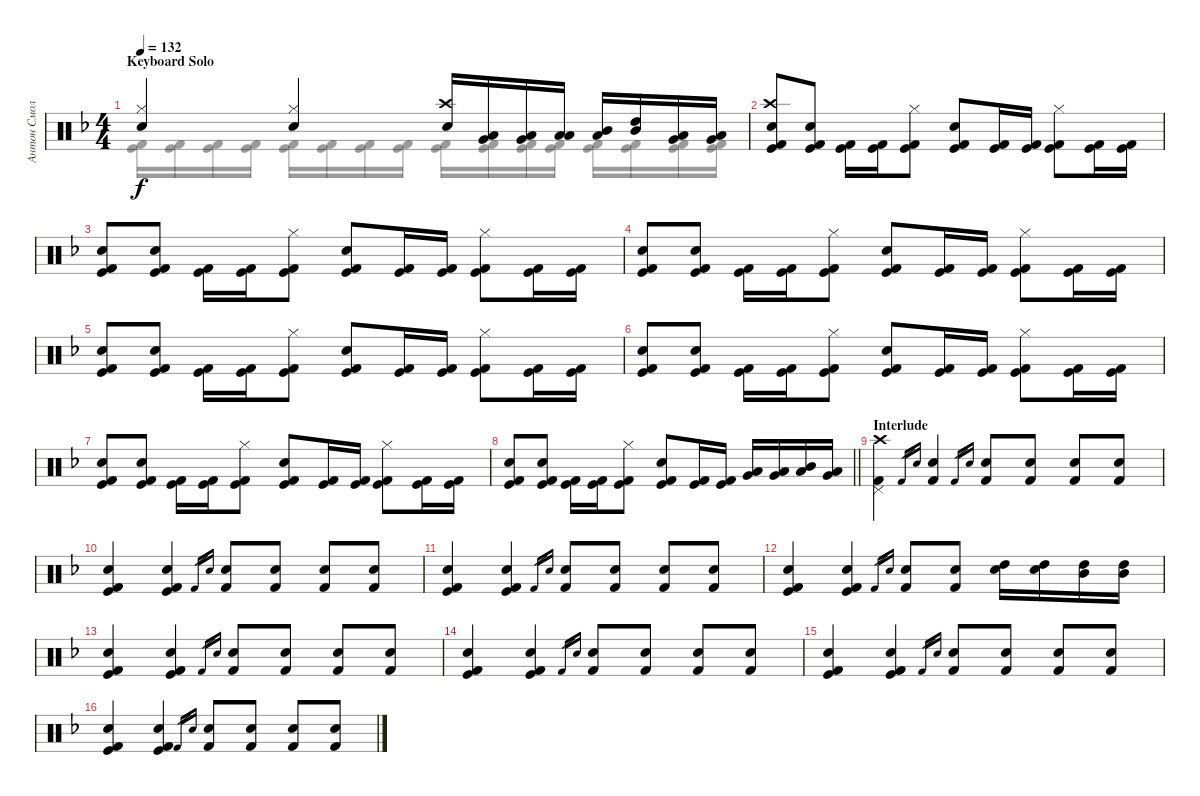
\track ("Антон Смольянин" "Антон Смол") {instrument percussion}
\staff {score}
\articulation defaults
\voice
\ts (4 4)
\section ("" "Keyboard Solo")
\tempo 132
\clef neutral
\ks f
("Hi-Hat (closed)" "Snare (hit) 2").4{dy f} ("Hi-Hat (closed)" "Snare (hit) 2").4 ("Snare (hit) 2" "Crash high (hit)").16 ("Low Tom (hit)" "Very Low Tom (hit)").16 ("Very Low Tom (hit)" "Low Tom (hit)").16 ("Low Floor Tom (hit)" "Low Tom (hit)").16 ("Low Tom (hit)" "Mid Tom (hit)").16 ("Mid Tom (hit)" "High Tom (hit)").16 ("Very Low Tom (hit)" "Low Floor Tom (hit)").16 ("Very Low Tom (hit)" "Low Tom (hit)").16 |
("Kick (hit) 2" "Kick (hit)" "Snare (hit) 2" "Crash high (hit)").8 ("Kick (hit) 2" "Kick (hit)" "Snare (hit) 2").8 ("Kick (hit) 2" "Kick (hit)").16 ("Kick (hit) 2" "Kick (hit)").16 ("Kick (hit) 2" "Kick (hit)" "Hi-Hat (closed)").8 ("Kick (hit) 2" "Kick (hit)" "Snare (hit) 2").8 ("Kick (hit) 2" "Kick (hit)").16 ("Kick (hit) 2" "Kick (hit)").16 ("Kick (hit) 2" "Kick (hit)" "Hi-Hat (closed)").8 ("Kick (hit) 2" "Kick (hit)").16 ("Kick (hit) 2" "Kick (hit)").16 |
("Kick (hit) 2" "Kick (hit)" "Snare (hit) 2").8 ("Kick (hit) 2" "Kick (hit)" "Snare (hit) 2").8 ("Kick (hit) 2" "Kick (hit)").16 ("Kick (hit) 2" "Kick (hit)").16 ("Kick (hit) 2" "Kick (hit)" "Hi-Hat (closed)").8 ("Kick (hit) 2" "Kick (hit)" "Snare (hit) 2").8 ("Kick (hit) 2" "Kick (hit)").16 ("Kick (hit) 2" "Kick (hit)").16 ("Kick (hit) 2" "Kick (hit)" "Hi-Hat (closed)").8 ("Kick (hit) 2" "Kick (hit)").16 ("Kick (hit) 2" "Kick (hit)").16 |
("Kick (hit) 2" "Kick (hit)" "Snare (hit) 2").8 ("Kick (hit) 2" "Kick (hit)" "Snare (hit) 2").8 ("Kick (hit) 2" "Kick (hit)").16 ("Kick (hit) 2" "Kick (hit)").16 ("Kick (hit) 2" "Kick (hit)" "Hi-Hat (closed)").8 ("Kick (hit) 2" "Kick (hit)" "Snare (hit) 2").8 ("Kick (hit) 2" "Kick (hit)").16 ("Kick (hit) 2" "Kick (hit)").16 ("Kick (hit) 2" "Kick (hit)" "Hi-Hat (closed)").8 ("Kick (hit) 2" "Kick (hit)").16 ("Kick (hit) 2" "Kick (hit)").16 |
("Kick (hit) 2" "Kick (hit)" "Snare (hit) 2").8 ("Kick (hit) 2" "Kick (hit)" "Snare (hit) 2").8 ("Kick (hit) 2" "Kick (hit)").16 ("Kick (hit) 2" "Kick (hit)").16 ("Kick (hit) 2" "Kick (hit)" "Hi-Hat (closed)").8 ("Kick (hit) 2" "Kick (hit)" "Snare (hit) 2").8 ("Kick (hit) 2" "Kick (hit)").16 ("Kick (hit) 2" "Kick (hit)").16 ("Kick (hit) 2" "Kick (hit)" "Hi-Hat (closed)").8 ("Kick (hit) 2" "Kick (hit)").16 ("Kick (hit) 2" "Kick (hit)").16 |
("Kick (hit) 2" "Kick (hit)" "Snare (hit) 2").8 ("Kick (hit) 2" "Kick (hit)" "Snare (hit) 2").8 ("Kick (hit) 2" "Kick (hit)").16 ("Kick (hit) 2" "Kick (hit)").16 ("Kick (hit) 2" "Kick (hit)" "Hi-Hat (closed)").8 ("Kick (hit) 2" "Kick (hit)" "Snare (hit) 2").8 ("Kick (hit) 2" "Kick (hit)").16 ("Kick (hit) 2" "Kick (hit)").16 ("Kick (hit) 2" "Kick (hit)" "Hi-Hat (closed)").8 ("Kick (hit) 2" "Kick (hit)").16 ("Kick (hit) 2" "Kick (hit)").16 |
("Kick (hit) 2" "Kick (hit)" "Snare (hit) 2").8 ("Kick (hit) 2" "Kick (hit)" "Snare (hit) 2").8 ("Kick (hit) 2" "Kick (hit)").16 ("Kick (hit) 2" "Kick (hit)").16 ("Kick (hit) 2" "Kick (hit)" "Hi-Hat (closed)").8 ("Kick (hit) 2" "Kick (hit)" "Snare (hit) 2").8 ("Kick (hit) 2" "Kick (hit)").16 ("Kick (hit) 2" "Kick (hit)").16 ("Kick (hit) 2" "Kick (hit)" "Hi-Hat (closed)").8 ("Kick (hit) 2" "Kick (hit)").16 ("Kick (hit) 2" "Kick (hit)").16 |
\barLineRight lightlight
("Kick (hit) 2" "Kick (hit)" "Snare (hit) 2").8 ("Kick (hit) 2" "Kick (hit)" "Snare (hit) 2").8 ("Kick (hit) 2" "Kick (hit)").16 ("Kick (hit) 2" "Kick (hit)").16 ("Kick (hit) 2" "Kick (hit)" "Hi-Hat (closed)").8 ("Kick (hit) 2" "Kick (hit)" "Snare (hit) 2").8 ("Kick (hit) 2" "Kick (hit)").16 ("Kick (hit) 2" "Kick (hit)").16 ("Low Tom (hit)" "Very Low Tom (hit)").16 ("Very Low Tom (hit)" "Low Tom (hit)").16 ("Mid Tom (hit)" "Low Tom (hit)").16 ("Low Tom (hit)" "Very Low Tom (hit)").16 |
\section ("" "Interlude")
("Kick (hit) 2" "Pedal Hi-Hat (hit)" "Crash high (hit)").4 "Kick (hit) 2".16{gr} "Snare (hit) 2".16{gr} ("Kick (hit) 2" "Snare (hit) 2").4 "Kick (hit) 2".16{gr} "Snare (hit) 2".16{gr} ("Kick (hit) 2" "Snare (hit) 2").8 ("Kick (hit) 2" "Snare (hit) 2").8 ("Kick (hit) 2" "Snare (hit) 2").8 ("Kick (hit) 2" "Snare (hit) 2").8 |
("Kick (hit) 2" "Kick (hit)" "Snare (hit) 2").4 ("Kick (hit) 2" "Kick (hit)" "Snare (hit) 2").4 "Kick (hit) 2".16{gr} "Snare (hit) 2".16{gr} ("Kick (hit) 2" "Snare (hit) 2").8 ("Kick (hit) 2" "Snare (hit) 2").8 ("Kick (hit) 2" "Snare (hit) 2").8 ("Kick (hit) 2" "Snare (hit) 2").8 |
("Kick (hit) 2" "Kick (hit)" "Snare (hit) 2").4 ("Kick (hit) 2" "Kick (hit)" "Snare (hit) 2").4 "Kick (hit) 2".16{gr} "Snare (hit) 2".16{gr} ("Kick (hit) 2" "Snare (hit) 2").8 ("Kick (hit) 2" "Snare (hit) 2").8 ("Kick (hit) 2" "Snare (hit) 2").8 ("Kick (hit) 2" "Snare (hit) 2").8 |
("Kick (hit) 2" "Kick (hit)" "Snare (hit) 2").4 ("Kick (hit) 2" "Kick (hit)" "Snare (hit) 2").4 "Kick (hit) 2".16{gr} "Snare (hit) 2".16{gr} ("Kick (hit) 2" "Snare (hit) 2").8 ("Kick (hit) 2" "Snare (hit) 2").8 ("Snare (hit) 2" "High Tom (hit)").16 ("Snare (hit) 2" "High Tom (hit)").16 ("High Tom (hit)" "Mid Tom (hit)").16 ("Mid Tom (hit)" "High Tom (hit)").16 |
("Kick (hit) 2" "Kick (hit)" "Snare (hit) 2").4 ("Kick (hit) 2" "Kick (hit)" "Snare (hit) 2").4 "Kick (hit) 2".16{gr} "Snare (hit) 2".16{gr} ("Kick (hit) 2" "Snare (hit) 2").8 ("Kick (hit) 2" "Snare (hit) 2").8 ("Kick (hit) 2" "Snare (hit) 2").8 ("Kick (hit) 2" "Snare (hit) 2").8 |
("Kick (hit) 2" "Kick (hit)" "Snare (hit) 2").4 ("Kick (hit) 2" "Kick (hit)" "Snare (hit) 2").4 "Kick (hit) 2".16{gr} "Snare (hit) 2".16{gr} ("Kick (hit) 2" "Snare (hit) 2").8 ("Kick (hit) 2" "Snare (hit) 2").8 ("Kick (hit) 2" "Snare (hit) 2").8 ("Kick (hit) 2" "Snare (hit) 2").8 |
("Kick (hit) 2" "Kick (hit)" "Snare (hit) 2").4 ("Kick (hit) 2" "Kick (hit)" "Snare (hit) 2").4 "Kick (hit) 2".16{gr} "Snare (hit) 2".16{gr} ("Kick (hit) 2" "Snare (hit) 2").8 ("Kick (hit) 2" "Snare (hit) 2").8 ("Kick (hit) 2" "Snare (hit) 2").8 ("Kick (hit) 2" "Snare (hit) 2").8 |
("Kick (hit) 2" "Kick (hit)" "Snare (hit) 2").4 ("Kick (hit) 2" "Kick (hit)" "Snare (hit) 2").4 "Kick (hit) 2".16{gr} "Snare (hit) 2".16{gr} ("Kick (hit) 2" "Snare (hit) 2").8 ("Kick (hit) 2" "Snare (hit) 2").8 ("Kick (hit) 2" "Snare (hit) 2").8 ("Kick (hit) 2" "Snare (hit) 2").8
\voice
\clef neutral
\ottava regular
\simile none
\ks f
("Kick (hit) 2" "Kick (hit)").16{dy f} ("Kick (hit) 2" "Kick (hit)").16 ("Kick (hit) 2" "Kick (hit)").16 ("Kick (hit) 2" "Kick (hit)").16 ("Kick (hit) 2" "Kick (hit)").16 ("Kick (hit) 2" "Kick (hit)").16 ("Kick (hit) 2" "Kick (hit)").16 ("Kick (hit) 2" "Kick (hit)").16 ("Kick (hit) 2" "Kick (hit)").16 ("Kick (hit) 2" "Kick (hit)").16 ("Kick (hit) 2" "Kick (hit)").16 ("Kick (hit) 2" "Kick (hit)").16 ("Kick (hit) 2" "Kick (hit)").16 ("Kick (hit) 2" "Kick (hit)").16 ("Kick (hit) 2" "Kick (hit)").16 ("Kick (hit) 2" "Kick (hit)").16 |
|
|
|
|
|
|
\barLineRight lightlight
|
|
|
|
|
|
|
|
